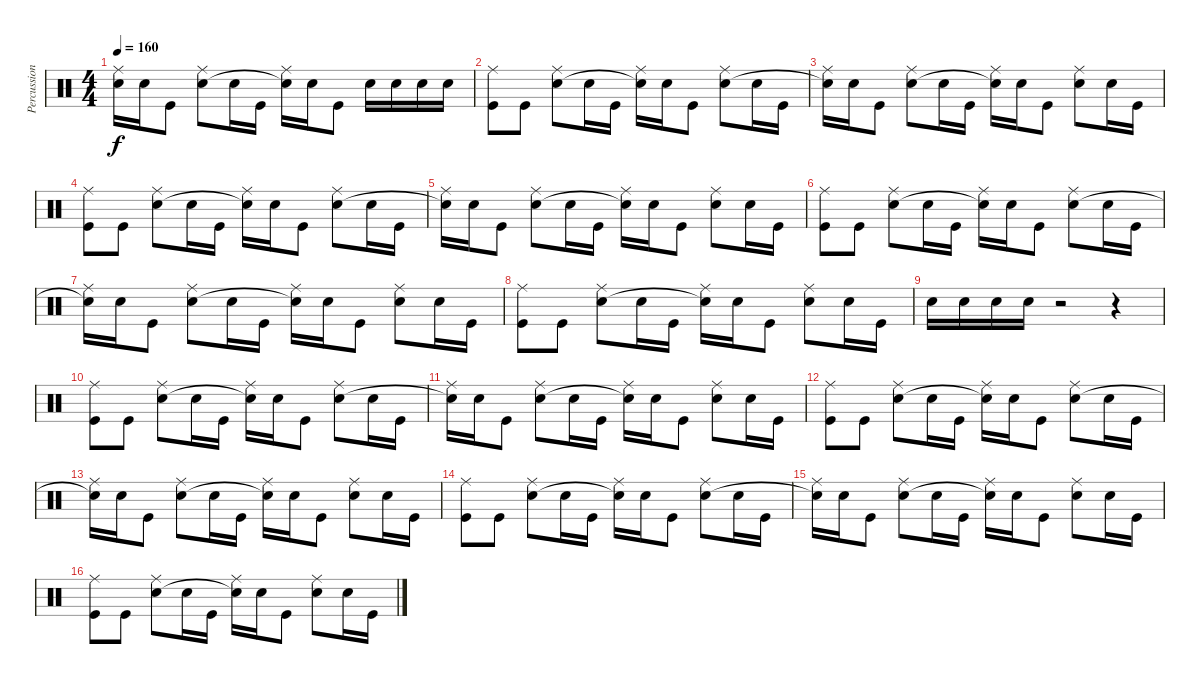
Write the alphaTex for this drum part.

\track ("Percussion" "Percussion") {instrument percussion}
\staff {score}
\articulation defaults
\ts (4 4)
\tempo 160
\clef neutral
\ks c
("Ride (middle)" "Snare (hit)"{t}).16{dy f} "Snare (hit) 2".16 "Kick (hit)".8 ("Ride (middle)" "Snare (hit) 2").8 "Snare (hit) 2".16 "Kick (hit)".16 ("Ride (middle)" "Snare (hit)"{t}).16 "Snare (hit) 2".16 "Kick (hit)".8 "Snare (hit) 2".16 "Snare (hit) 2".16 "Snare (hit) 2".16 "Snare (hit) 2".16 |
("Ride (middle)" "Kick (hit)").8 "Kick (hit)".8 ("Ride (middle)" "Snare (hit) 2").8 "Snare (hit) 2".16 "Kick (hit)".16 ("Ride (middle)" "Snare (hit)"{t}).16 "Snare (hit) 2".16 "Kick (hit)".8 ("Ride (middle)" "Snare (hit) 2").8 "Snare (hit) 2".16 "Kick (hit)".16 |
("Ride (middle)" "Snare (hit)"{t}).16 "Snare (hit) 2".16 "Kick (hit)".8 ("Ride (middle)" "Snare (hit) 2").8 "Snare (hit) 2".16 "Kick (hit)".16 ("Ride (middle)" "Snare (hit)"{t}).16 "Snare (hit) 2".16 "Kick (hit)".8 ("Ride (middle)" "Snare (hit) 2").8 "Snare (hit) 2".16 "Kick (hit)".16 |
("Ride (middle)" "Kick (hit)").8 "Kick (hit)".8 ("Ride (middle)" "Snare (hit) 2").8 "Snare (hit) 2".16 "Kick (hit)".16 ("Ride (middle)" "Snare (hit)"{t}).16 "Snare (hit) 2".16 "Kick (hit)".8 ("Ride (middle)" "Snare (hit) 2").8 "Snare (hit) 2".16 "Kick (hit)".16 |
("Ride (middle)" "Snare (hit)"{t}).16 "Snare (hit) 2".16 "Kick (hit)".8 ("Ride (middle)" "Snare (hit) 2").8 "Snare (hit) 2".16 "Kick (hit)".16 ("Ride (middle)" "Snare (hit)"{t}).16 "Snare (hit) 2".16 "Kick (hit)".8 ("Ride (middle)" "Snare (hit) 2").8 "Snare (hit) 2".16 "Kick (hit)".16 |
("Ride (middle)" "Kick (hit)").8 "Kick (hit)".8 ("Ride (middle)" "Snare (hit) 2").8 "Snare (hit) 2".16 "Kick (hit)".16 ("Ride (middle)" "Snare (hit)"{t}).16 "Snare (hit) 2".16 "Kick (hit)".8 ("Ride (middle)" "Snare (hit) 2").8 "Snare (hit) 2".16 "Kick (hit)".16 |
("Ride (middle)" "Snare (hit)"{t}).16 "Snare (hit) 2".16 "Kick (hit)".8 ("Ride (middle)" "Snare (hit) 2").8 "Snare (hit) 2".16 "Kick (hit)".16 ("Ride (middle)" "Snare (hit)"{t}).16 "Snare (hit) 2".16 "Kick (hit)".8 ("Ride (middle)" "Snare (hit) 2").8 "Snare (hit) 2".16 "Kick (hit)".16 |
("Ride (middle)" "Kick (hit)").8 "Kick (hit)".8 ("Ride (middle)" "Snare (hit) 2").8 "Snare (hit) 2".16 "Kick (hit)".16 ("Ride (middle)" "Snare (hit)"{t}).16 "Snare (hit) 2".16 "Kick (hit)".8 ("Ride (middle)" "Snare (hit) 2").8 "Snare (hit) 2".16 "Kick (hit)".16 |
"Snare (hit) 2".16 "Snare (hit) 2".16 "Snare (hit) 2".16 "Snare (hit) 2".16 r.2 r.4 |
("Ride (middle)" "Kick (hit)").8 "Kick (hit)".8 ("Ride (middle)" "Snare (hit) 2").8 "Snare (hit) 2".16 "Kick (hit)".16 ("Ride (middle)" "Snare (hit)"{t}).16 "Snare (hit) 2".16 "Kick (hit)".8 ("Ride (middle)" "Snare (hit) 2").8 "Snare (hit) 2".16 "Kick (hit)".16 |
("Ride (middle)" "Snare (hit)"{t}).16 "Snare (hit) 2".16 "Kick (hit)".8 ("Ride (middle)" "Snare (hit) 2").8 "Snare (hit) 2".16 "Kick (hit)".16 ("Ride (middle)" "Snare (hit)"{t}).16 "Snare (hit) 2".16 "Kick (hit)".8 ("Ride (middle)" "Snare (hit) 2").8 "Snare (hit) 2".16 "Kick (hit)".16 |
("Ride (middle)" "Kick (hit)").8 "Kick (hit)".8 ("Ride (middle)" "Snare (hit) 2").8 "Snare (hit) 2".16 "Kick (hit)".16 ("Ride (middle)" "Snare (hit)"{t}).16 "Snare (hit) 2".16 "Kick (hit)".8 ("Ride (middle)" "Snare (hit) 2").8 "Snare (hit) 2".16 "Kick (hit)".16 |
("Ride (middle)" "Snare (hit)"{t}).16 "Snare (hit) 2".16 "Kick (hit)".8 ("Ride (middle)" "Snare (hit) 2").8 "Snare (hit) 2".16 "Kick (hit)".16 ("Ride (middle)" "Snare (hit)"{t}).16 "Snare (hit) 2".16 "Kick (hit)".8 ("Ride (middle)" "Snare (hit) 2").8 "Snare (hit) 2".16 "Kick (hit)".16 |
("Ride (middle)" "Kick (hit)").8 "Kick (hit)".8 ("Ride (middle)" "Snare (hit) 2").8 "Snare (hit) 2".16 "Kick (hit)".16 ("Ride (middle)" "Snare (hit)"{t}).16 "Snare (hit) 2".16 "Kick (hit)".8 ("Ride (middle)" "Snare (hit) 2").8 "Snare (hit) 2".16 "Kick (hit)".16 |
("Ride (middle)" "Snare (hit)"{t}).16 "Snare (hit) 2".16 "Kick (hit)".8 ("Ride (middle)" "Snare (hit) 2").8 "Snare (hit) 2".16 "Kick (hit)".16 ("Ride (middle)" "Snare (hit)"{t}).16 "Snare (hit) 2".16 "Kick (hit)".8 ("Ride (middle)" "Snare (hit) 2").8 "Snare (hit) 2".16 "Kick (hit)".16 |
("Ride (middle)" "Kick (hit)").8 "Kick (hit)".8 ("Ride (middle)" "Snare (hit) 2").8 "Snare (hit) 2".16 "Kick (hit)".16 ("Ride (middle)" "Snare (hit)"{t}).16 "Snare (hit) 2".16 "Kick (hit)".8 ("Ride (middle)" "Snare (hit) 2").8 "Snare (hit) 2".16 "Kick (hit)".16
